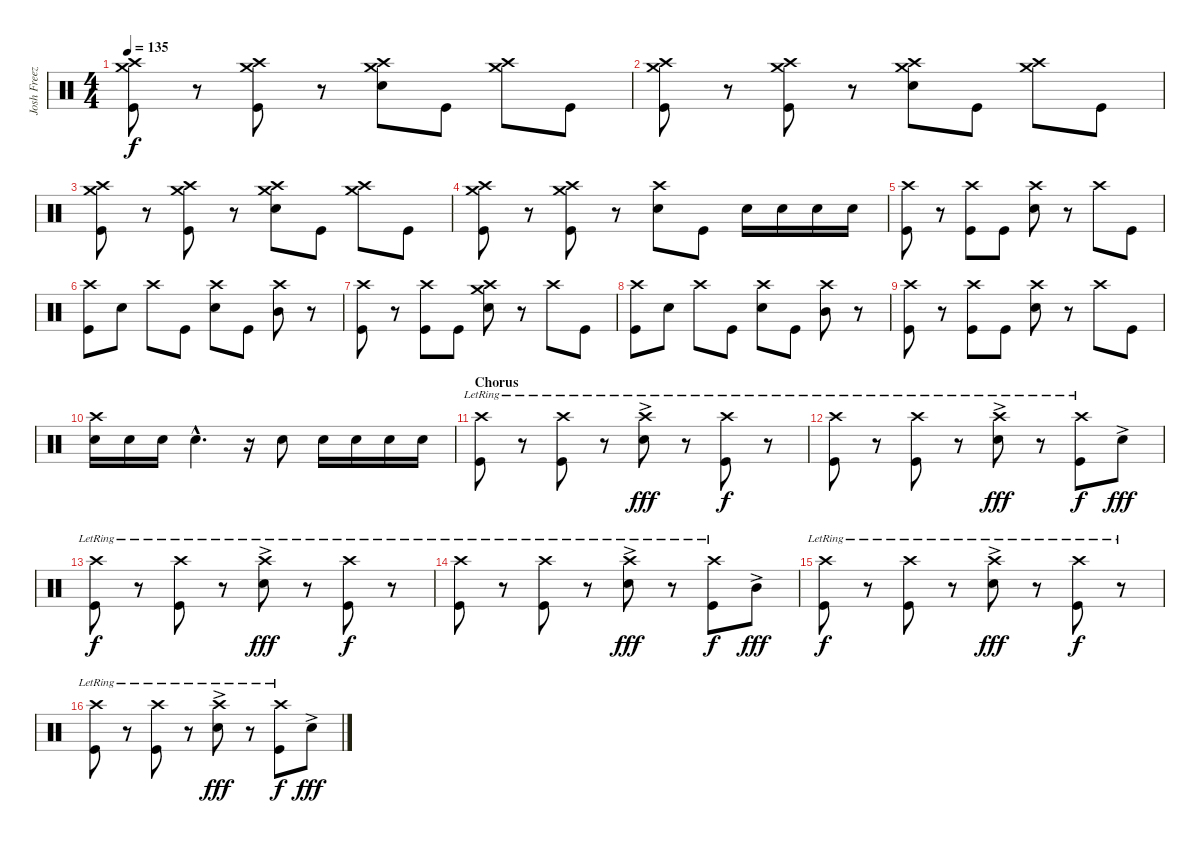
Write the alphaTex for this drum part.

\track ("Josh Freeze" "Josh Freez") {instrument percussion}
\staff {score}
\articulation defaults
\ts (4 4)
\tempo 135
\clef neutral
\ks c
("Crash high (hit)" "Crash medium (hit)" "Kick (hit)").8{dy f} r.8 ("Crash high (hit)" "Crash medium (hit)" "Kick (hit)").8 r.8 ("Crash high (hit)" "Crash medium (hit)" "Electric Snare (hit)").8 "Kick (hit)".8 ("Crash high (hit)" "Crash medium (hit)").8 "Kick (hit)".8 |
("Crash high (hit)" "Crash medium (hit)" "Kick (hit)").8 r.8 ("Crash high (hit)" "Crash medium (hit)" "Kick (hit)").8 r.8 ("Crash high (hit)" "Crash medium (hit)" "Electric Snare (hit)").8 "Kick (hit)".8 ("Crash high (hit)" "Crash medium (hit)").8 "Kick (hit)".8 |
("Crash high (hit)" "Crash medium (hit)" "Kick (hit)").8 r.8 ("Crash high (hit)" "Crash medium (hit)" "Kick (hit)").8 r.8 ("Crash high (hit)" "Crash medium (hit)" "Electric Snare (hit)").8 "Kick (hit)".8 ("Crash high (hit)" "Crash medium (hit)").8 "Kick (hit)".8 |
("Crash high (hit)" "Crash medium (hit)" "Kick (hit)").8 r.8 ("Crash high (hit)" "Crash medium (hit)" "Kick (hit)").8 r.8 ("Crash high (hit)" "Electric Snare (hit)").8 "Kick (hit)".8 "Electric Snare (hit)".16 "Electric Snare (hit)".16 "Electric Snare (hit)".16 "Electric Snare (hit)".16 |
("Crash high (hit)" "Kick (hit)").8 r.8 ("Crash high (hit)" "Kick (hit)").8 "Kick (hit)".8 ("Crash high (hit)" "Electric Snare (hit)").8 r.8 "Crash high (hit)".8 "Kick (hit)".8 |
("Crash high (hit)" "Kick (hit)").8 "Electric Snare (hit)".8 "Crash high (hit)".8 "Kick (hit)".8 ("Crash high (hit)" "Electric Snare (hit)").8 "Kick (hit)".8 ("Crash high (hit)" "Mid Tom (hit)").8 r.8 |
("Crash high (hit)" "Kick (hit)").8 r.8 ("Crash high (hit)" "Kick (hit)").8 "Kick (hit)".8 ("Crash high (hit)" "Crash medium (hit)" "Electric Snare (hit)").8 r.8 "Crash high (hit)".8 "Kick (hit)".8 |
("Crash high (hit)" "Kick (hit)").8 "Electric Snare (hit)".8 "Crash high (hit)".8 "Kick (hit)".8 ("Crash high (hit)" "Electric Snare (hit)").8 "Kick (hit)".8 ("Crash high (hit)" "Mid Tom (hit)").8 r.8 |
("Crash high (hit)" "Kick (hit)").8 r.8 ("Crash high (hit)" "Kick (hit)").8 "Kick (hit)".8 ("Crash high (hit)" "Electric Snare (hit)").8 r.8 "Crash high (hit)".8 "Kick (hit)".8 |
("Crash high (hit)" "Electric Snare (hit)").16 "Electric Snare (hit)".16 "Electric Snare (hit)".16 "Electric Snare (hit)"{hac}.4{d} r.16 "Electric Snare (hit)".8 "Electric Snare (hit)".16 "Electric Snare (hit)".16 "Electric Snare (hit)".16 "Electric Snare (hit)".16 |
\section ("" "Chorus")
("Crash high (hit)"{lr} "Kick (hit)").8 r.8 ("Crash high (hit)"{lr} "Kick (hit)").8 r.8 ("Crash high (hit)"{lr} "Electric Snare (hit)"{ac}).8{dy fff} r.8 ("Crash high (hit)"{lr} "Kick (hit)").8{dy f} r.8 |
("Crash high (hit)"{lr} "Kick (hit)").8 r.8 ("Crash high (hit)"{lr} "Kick (hit)").8 r.8 ("Crash high (hit)"{lr} "Electric Snare (hit)"{ac}).8{dy fff} r.8 ("Crash high (hit)"{lr} "Kick (hit)").8{dy f} "Electric Snare (hit)"{ac}.8{dy fff} |
("Crash high (hit)"{lr} "Kick (hit)").8{dy f} r.8 ("Crash high (hit)"{lr} "Kick (hit)").8 r.8 ("Crash high (hit)"{lr} "Electric Snare (hit)"{ac}).8{dy fff} r.8 ("Crash high (hit)"{lr} "Kick (hit)").8{dy f} r.8 |
("Crash high (hit)"{lr} "Kick (hit)").8 r.8 ("Crash high (hit)"{lr} "Kick (hit)").8 r.8 ("Crash high (hit)"{lr} "Electric Snare (hit)"{ac}).8{dy fff} r.8 ("Crash high (hit)"{lr} "Kick (hit)").8{dy f} "Mid Tom (hit)"{ac}.8{dy fff} |
("Crash high (hit)"{lr} "Kick (hit)").8{dy f} r.8 ("Crash high (hit)"{lr} "Kick (hit)").8 r.8 ("Crash high (hit)"{lr} "Electric Snare (hit)"{ac}).8{dy fff} r.8 ("Crash high (hit)"{lr} "Kick (hit)").8{dy f} r.8 |
("Crash high (hit)"{lr} "Kick (hit)").8 r.8 ("Crash high (hit)"{lr} "Kick (hit)").8 r.8 ("Crash high (hit)"{lr} "Electric Snare (hit)"{ac}).8{dy fff} r.8 ("Crash high (hit)"{lr} "Kick (hit)").8{dy f} "Electric Snare (hit)"{ac}.8{dy fff}
